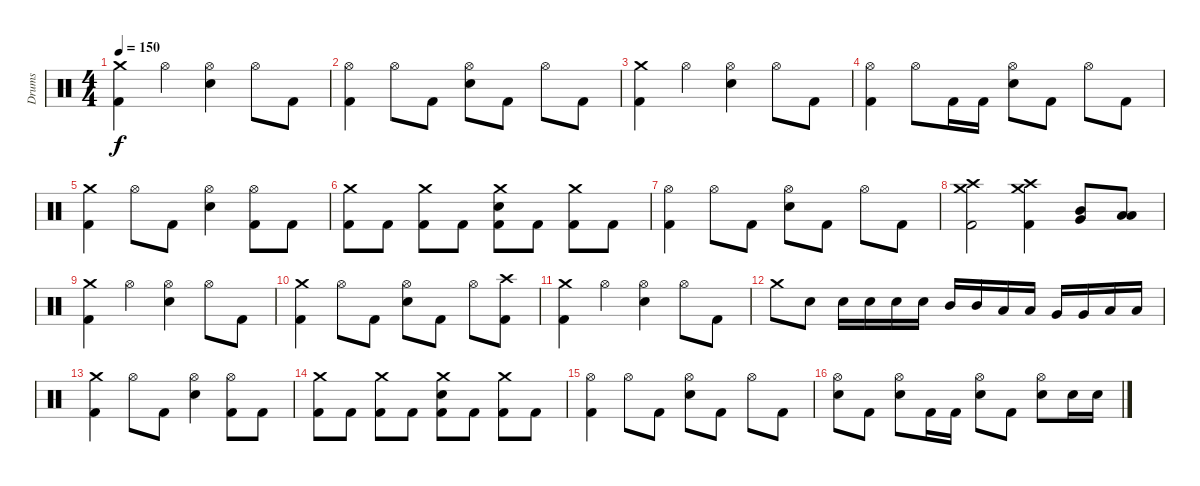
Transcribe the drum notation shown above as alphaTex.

\track ("Drums" "Drums") {instrument percussion}
\staff {score}
\articulation defaults
\ts (4 4)
\tempo 150
\clef neutral
\ks c
("Crash medium (hit)" "Kick (hit) 2").4{dy f} "Hi-Hat (open)".4 ("Hi-Hat (open)" "Electric Snare (hit)").4 "Hi-Hat (open)".8 "Kick (hit) 2".8 |
("Hi-Hat (open)" "Kick (hit) 2").4 "Hi-Hat (open)".8 "Kick (hit) 2".8 ("Hi-Hat (open)" "Electric Snare (hit)").8 "Kick (hit) 2".8 "Hi-Hat (open)".8 "Kick (hit) 2".8 |
("Crash medium (hit)" "Kick (hit) 2").4 "Hi-Hat (open)".4 ("Hi-Hat (open)" "Electric Snare (hit)").4 "Hi-Hat (open)".8 "Kick (hit) 2".8 |
("Hi-Hat (open)" "Kick (hit) 2").4 "Hi-Hat (open)".8 "Kick (hit) 2".16 "Kick (hit) 2".16 ("Hi-Hat (open)" "Electric Snare (hit)").8 "Kick (hit) 2".8 "Hi-Hat (open)".8 "Kick (hit) 2".8 |
("Crash medium (hit)" "Kick (hit) 2").4 "Hi-Hat (open)".8 "Kick (hit) 2".8 ("Hi-Hat (open)" "Electric Snare (hit)").4 ("Hi-Hat (open)" "Kick (hit) 2").8 "Kick (hit) 2".8 |
("Crash medium (hit)" "Kick (hit) 2").8 "Kick (hit) 2".8 ("Crash medium (hit)" "Kick (hit) 2").8 "Kick (hit) 2".8 ("Crash medium (hit)" "Electric Snare (hit)" "Kick (hit) 2").8 "Kick (hit) 2".8 ("Crash medium (hit)" "Kick (hit) 2").8 "Kick (hit) 2".8 |
("Hi-Hat (open)" "Kick (hit) 2").4 "Hi-Hat (open)".8 "Kick (hit) 2".8 ("Hi-Hat (open)" "Electric Snare (hit)").8 "Kick (hit) 2".8 "Hi-Hat (open)".8 "Kick (hit) 2".8 |
("Crash medium (hit)" "Crash high (hit)" "Kick (hit) 2").2 ("Crash high (hit)" "Crash medium (hit)" "Kick (hit) 2").4 ("Mid Tom (hit)" "Very Low Tom (hit)").8 ("Low Tom (hit)" "Low Floor Tom (hit)").8 |
("Crash medium (hit)" "Kick (hit) 2").4 "Hi-Hat (open)".4 ("Hi-Hat (open)" "Electric Snare (hit)").4 "Hi-Hat (open)".8 "Kick (hit) 2".8 |
("Crash medium (hit)" "Kick (hit) 2").4 "Hi-Hat (open)".8 "Kick (hit) 2".8 ("Hi-Hat (open)" "Electric Snare (hit)").8 "Kick (hit) 2".8 "Hi-Hat (open)".8 ("Crash high (hit)" "Kick (hit) 2").8 |
("Crash medium (hit)" "Kick (hit) 2").4 "Hi-Hat (open)".4 ("Hi-Hat (open)" "Electric Snare (hit)").4 "Hi-Hat (open)".8 "Kick (hit) 2".8 |
"Crash medium (hit)".8 "Electric Snare (hit)".8 "Electric Snare (hit)".16 "Electric Snare (hit)".16 "Electric Snare (hit)".16 "Electric Snare (hit)".16 "Mid Tom (hit)".16 "Mid Tom (hit)".16 "Low Tom (hit)".16 "Low Tom (hit)".16 "Very Low Tom (hit)".16 "Very Low Tom (hit)".16 "Low Floor Tom (hit)".16 "Low Floor Tom (hit)".16 |
("Crash medium (hit)" "Kick (hit) 2").4 "Hi-Hat (open)".8 "Kick (hit) 2".8 ("Hi-Hat (open)" "Electric Snare (hit)").4 ("Hi-Hat (open)" "Kick (hit) 2").8 "Kick (hit) 2".8 |
("Crash medium (hit)" "Kick (hit) 2").8 "Kick (hit) 2".8 ("Crash medium (hit)" "Kick (hit) 2").8 "Kick (hit) 2".8 ("Crash medium (hit)" "Electric Snare (hit)" "Kick (hit) 2").8 "Kick (hit) 2".8 ("Crash medium (hit)" "Kick (hit) 2").8 "Kick (hit) 2".8 |
("Hi-Hat (open)" "Kick (hit) 2").4 "Hi-Hat (open)".8 "Kick (hit) 2".8 ("Hi-Hat (open)" "Electric Snare (hit)").8 "Kick (hit) 2".8 "Hi-Hat (open)".8 "Kick (hit) 2".8 |
("Hi-Hat (open)" "Electric Snare (hit)").8 "Kick (hit) 2".8 ("Hi-Hat (open)" "Electric Snare (hit)").8 "Kick (hit) 2".16 "Kick (hit) 2".16 ("Hi-Hat (open)" "Electric Snare (hit)").8 "Kick (hit) 2".8 ("Hi-Hat (open)" "Electric Snare (hit)").8 "Electric Snare (hit)".16 "Electric Snare (hit)".16
